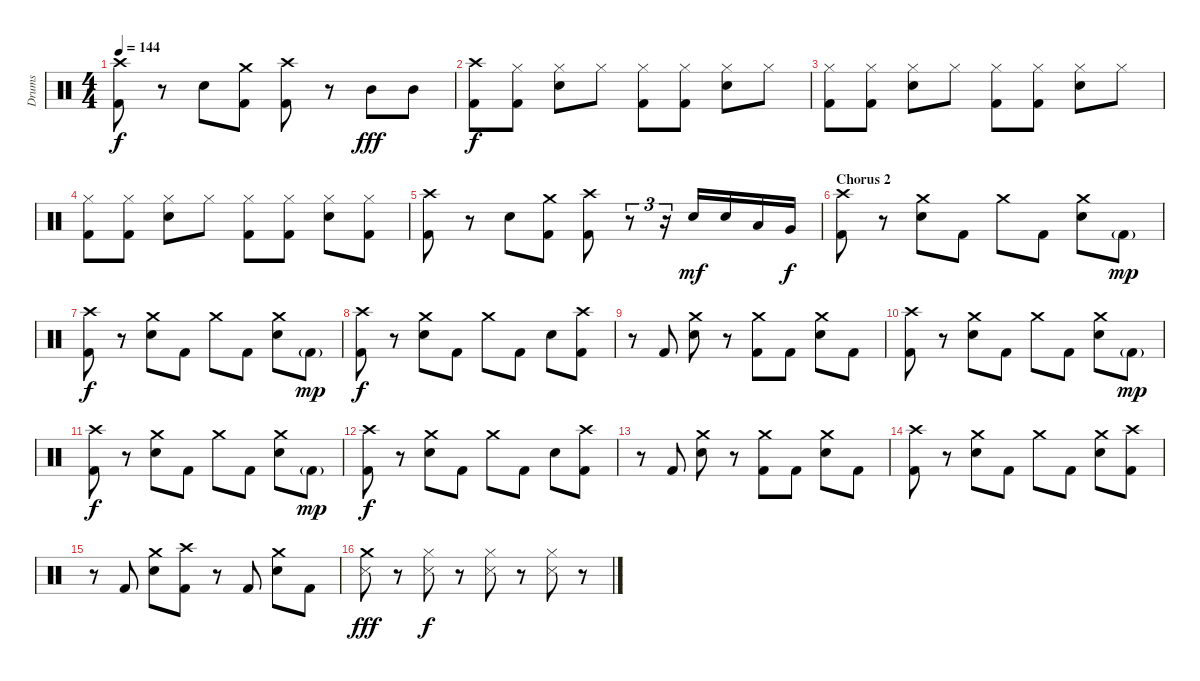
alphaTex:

\track ("Drums" "Drums") {instrument percussion}
\staff {score}
\articulation defaults
\ts (4 4)
\tempo 144
\clef neutral
\ks c
("Crash high (hit)" "Kick (hit) 2").8{dy f} r.8 "Snare (hit) 2".8 ("Crash medium (hit)" "Kick (hit) 2").8 ("Crash high (hit)" "Kick (hit) 2").8 r.8 "Mid Tom (hit)".8{dy fff} "Mid Tom (hit)".8 |
("Crash high (hit)" "Kick (hit) 2").8{dy f} ("Hi-Hat (closed)" "Kick (hit) 2").8 ("Hi-Hat (closed)" "Snare (hit) 2").8 "Hi-Hat (closed)".8 ("Hi-Hat (closed)" "Kick (hit) 2").8 ("Hi-Hat (closed)" "Kick (hit) 2").8 ("Hi-Hat (closed)" "Snare (hit) 2").8 "Hi-Hat (closed)".8 |
("Hi-Hat (closed)" "Kick (hit) 2").8 ("Hi-Hat (closed)" "Kick (hit) 2").8 ("Hi-Hat (closed)" "Snare (hit) 2").8 "Hi-Hat (closed)".8 ("Hi-Hat (closed)" "Kick (hit) 2").8 ("Hi-Hat (closed)" "Kick (hit) 2").8 ("Hi-Hat (closed)" "Snare (hit) 2").8 "Hi-Hat (closed)".8 |
("Hi-Hat (closed)" "Kick (hit) 2").8 ("Hi-Hat (closed)" "Kick (hit) 2").8 ("Hi-Hat (closed)" "Snare (hit) 2").8 "Hi-Hat (closed)".8 ("Hi-Hat (closed)" "Kick (hit) 2").8 ("Hi-Hat (closed)" "Kick (hit) 2").8 ("Hi-Hat (closed)" "Snare (hit) 2").8 ("Hi-Hat (closed)" "Kick (hit) 2").8 |
("Crash high (hit)" "Kick (hit) 2").8 r.8 "Snare (hit) 2".8 ("Crash medium (hit)" "Kick (hit) 2").8 ("Crash high (hit)" "Kick (hit) 2").8 r.8{tu (3 2)} r.16{tu (3 2)} "Snare (hit) 2".16{dy mf} "Snare (hit) 2".16 "Low Tom (hit)".16 "Very Low Tom (hit)".16{dy f} |
\section ("" "Chorus 2")
("Crash high (hit)" "Kick (hit) 2").8 r.8 ("Crash medium (hit)" "Snare (hit) 2").8 "Kick (hit) 2".8 "Crash medium (hit)".8 "Kick (hit) 2".8 ("Crash medium (hit)" "Snare (hit) 2").8 "Kick (hit) 2"{g}.8{dy mp} |
("Crash high (hit)" "Kick (hit) 2").8{dy f} r.8 ("Crash medium (hit)" "Snare (hit) 2").8 "Kick (hit) 2".8 "Crash medium (hit)".8 "Kick (hit) 2".8 ("Crash medium (hit)" "Snare (hit) 2").8 "Kick (hit) 2"{g}.8{dy mp} |
("Crash high (hit)" "Kick (hit) 2").8{dy f} r.8 ("Crash medium (hit)" "Snare (hit) 2").8 "Kick (hit) 2".8 "Crash medium (hit)".8 "Kick (hit) 2".8 "Snare (hit) 2".8 ("Crash high (hit)" "Kick (hit) 2").8 |
r.8 "Kick (hit) 2".8 ("Crash medium (hit)" "Snare (hit) 2").8 r.8 ("Crash medium (hit)" "Kick (hit) 2").8 "Kick (hit) 2".8 ("Crash medium (hit)" "Snare (hit) 2").8 "Kick (hit) 2".8 |
("Crash high (hit)" "Kick (hit) 2").8 r.8 ("Crash medium (hit)" "Snare (hit) 2").8 "Kick (hit) 2".8 "Crash medium (hit)".8 "Kick (hit) 2".8 ("Crash medium (hit)" "Snare (hit) 2").8 "Kick (hit) 2"{g}.8{dy mp} |
("Crash high (hit)" "Kick (hit) 2").8{dy f} r.8 ("Crash medium (hit)" "Snare (hit) 2").8 "Kick (hit) 2".8 "Crash medium (hit)".8 "Kick (hit) 2".8 ("Crash medium (hit)" "Snare (hit) 2").8 "Kick (hit) 2"{g}.8{dy mp} |
("Crash high (hit)" "Kick (hit) 2").8{dy f} r.8 ("Crash medium (hit)" "Snare (hit) 2").8 "Kick (hit) 2".8 "Crash medium (hit)".8 "Kick (hit) 2".8 "Snare (hit) 2".8 ("Crash high (hit)" "Kick (hit) 2").8 |
r.8 "Kick (hit) 2".8 ("Crash medium (hit)" "Snare (hit) 2").8 r.8 ("Crash medium (hit)" "Kick (hit) 2").8 "Kick (hit) 2".8 ("Crash medium (hit)" "Snare (hit) 2").8 "Kick (hit) 2".8 |
("Crash high (hit)" "Kick (hit) 2").8 r.8 ("Crash medium (hit)" "Snare (hit) 2").8 "Kick (hit) 2".8 "Crash medium (hit)".8 "Kick (hit) 2".8 ("Crash medium (hit)" "Snare (hit) 2").8 ("Crash high (hit)" "Kick (hit) 2").8 |
r.8 "Kick (hit) 2".8 ("Crash medium (hit)" "Snare (hit) 2").8 ("Crash high (hit)" "Kick (hit) 2").8 r.8 "Kick (hit) 2".8 ("Crash medium (hit)" "Snare (hit) 2").8 "Kick (hit) 2".8 |
("Crash medium (hit)" "Snare (side stick) 3").8{dy fff} r.8 ("Hi-Hat (closed)" "Snare (side stick) 3").8{dy f} r.8 ("Hi-Hat (closed)" "Snare (side stick) 3").8 r.8 ("Hi-Hat (closed)" "Snare (side stick) 3").8 r.8
